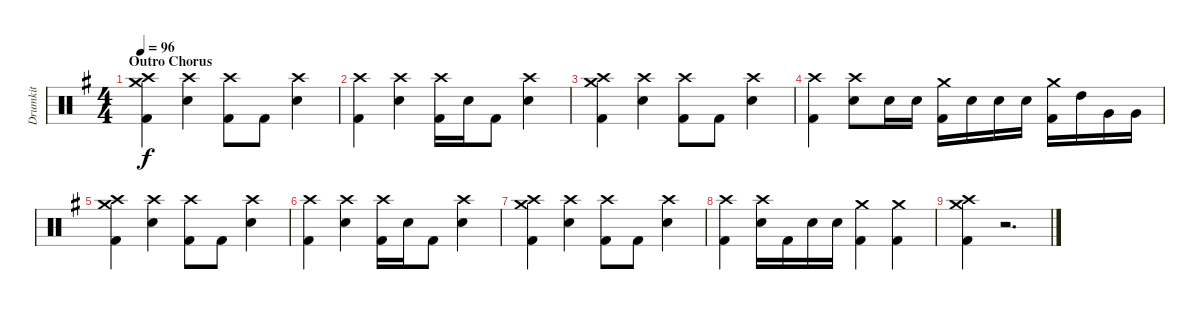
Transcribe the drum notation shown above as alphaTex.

\track ("Drumkit" "Drumkit") {instrument percussion}
\staff {score}
\articulation defaults
\ts (4 4)
\section ("" "Outro Chorus")
\tempo 96
\clef neutral
\ks eminor
("Crash high (hit)" "Crash medium (hit)" "Kick (hit) 2").4{dy f} ("Crash high (hit)" "Electric Snare (hit)").4 ("Crash high (hit)" "Kick (hit) 2").8 "Kick (hit) 2".8 ("Crash high (hit)" "Electric Snare (hit)").4 |
("Crash high (hit)" "Kick (hit) 2").4 ("Crash high (hit)" "Electric Snare (hit)").4 ("Crash high (hit)" "Kick (hit) 2").16 "Electric Snare (hit)".16 "Kick (hit) 2".8 ("Crash high (hit)" "Electric Snare (hit)").4 |
("Crash high (hit)" "Crash medium (hit)" "Kick (hit) 2").4 ("Crash high (hit)" "Electric Snare (hit)").4 ("Crash high (hit)" "Kick (hit) 2").8 "Kick (hit) 2".8 ("Crash high (hit)" "Electric Snare (hit)").4 |
("Crash high (hit)" "Kick (hit) 2").4 ("Crash high (hit)" "Electric Snare (hit)").8 "Electric Snare (hit)".16 "Electric Snare (hit)".16 ("Crash medium (hit)" "Kick (hit) 2").16 "Electric Snare (hit)".16 "Electric Snare (hit)".16 "Electric Snare (hit)".16 ("Crash medium (hit)" "Kick (hit) 2").16 "High Tom (hit)".16 "Very Low Tom (hit)".16 "Very Low Tom (hit)".16 |
("Crash high (hit)" "Crash medium (hit)" "Kick (hit) 2").4 ("Crash high (hit)" "Electric Snare (hit)").4 ("Crash high (hit)" "Kick (hit) 2").8 "Kick (hit) 2".8 ("Crash high (hit)" "Electric Snare (hit)").4 |
("Crash high (hit)" "Kick (hit) 2").4 ("Crash high (hit)" "Electric Snare (hit)").4 ("Crash high (hit)" "Kick (hit) 2").16 "Electric Snare (hit)".16 "Kick (hit) 2".8 ("Crash high (hit)" "Electric Snare (hit)").4 |
("Crash high (hit)" "Crash medium (hit)" "Kick (hit) 2").4 ("Crash high (hit)" "Electric Snare (hit)").4 ("Crash high (hit)" "Kick (hit) 2").8 "Kick (hit) 2".8 ("Crash high (hit)" "Electric Snare (hit)").4 |
("Crash high (hit)" "Kick (hit) 2").4 ("Crash high (hit)" "Electric Snare (hit)").16 "Kick (hit) 2".16 "Electric Snare (hit)".16 "Electric Snare (hit)".16 ("Crash medium (hit)" "Kick (hit) 2").4 ("Crash medium (hit)" "Kick (hit) 2").4 |
("Crash high (hit)" "Crash medium (hit)" "Kick (hit) 2").4 r.2{d}
